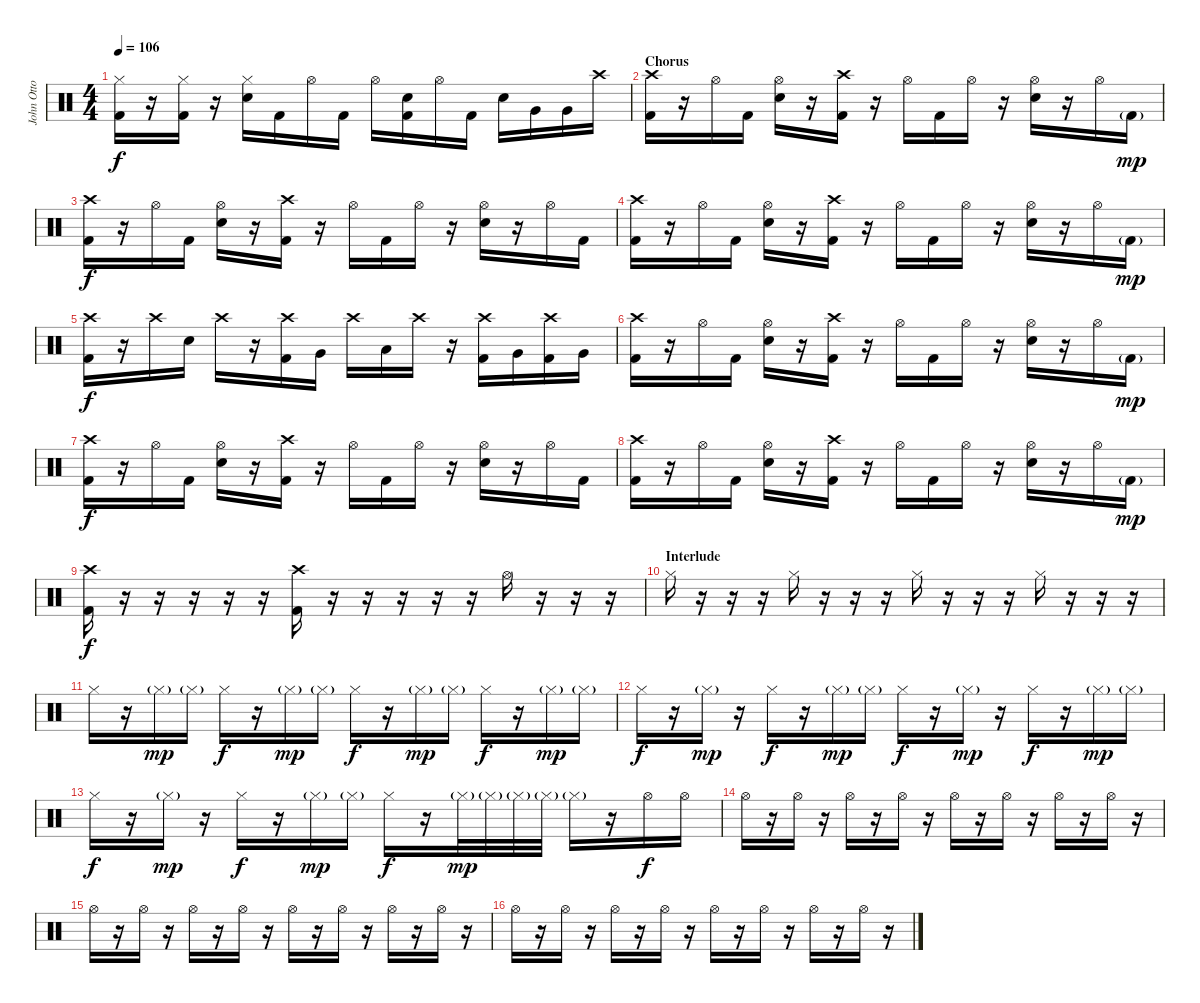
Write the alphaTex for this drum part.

\track ("John Otto" "John Otto") {instrument percussion}
\staff {score}
\articulation defaults
\ts (4 4)
\tempo 106
\clef neutral
\ks c
("Hi-Hat (closed)" "Kick (hit) 2").16{dy f} r.16 ("Hi-Hat (closed)" "Kick (hit) 2").16 r.16 ("Hi-Hat (closed)" "Snare (hit) 2").16 "Kick (hit) 2".16 "Hi-Hat (open)".16 "Kick (hit) 2".16 "Hi-Hat (open)".16 ("Snare (hit) 2" "Kick (hit) 2").16 "Hi-Hat (open)".16 "Kick (hit) 2".16 "Snare (hit) 2".16 "Very Low Tom (hit)".16 "Very Low Tom (hit)".16 "Crash high (hit)".16 |
\section ("" "Chorus")
("Crash high (hit)" "Kick (hit) 2").16 r.16 "Hi-Hat (open)".16 "Kick (hit) 2".16 ("Hi-Hat (open)" "Snare (hit) 2").16 r.16 ("Crash high (hit)" "Kick (hit) 2").16 r.16 "Hi-Hat (open)".16 "Kick (hit) 2".16 "Hi-Hat (open)".16 r.16 ("Hi-Hat (open)" "Snare (hit) 2").16 r.16 "Hi-Hat (open)".16 "Kick (hit) 2"{g}.16{dy mp} |
("Crash high (hit)" "Kick (hit) 2").16{dy f} r.16 "Hi-Hat (open)".16 "Kick (hit) 2".16 ("Hi-Hat (open)" "Snare (hit) 2").16 r.16 ("Crash high (hit)" "Kick (hit) 2").16 r.16 "Hi-Hat (open)".16 "Kick (hit) 2".16 "Hi-Hat (open)".16 r.16 ("Hi-Hat (open)" "Snare (hit) 2").16 r.16 "Hi-Hat (open)".16 "Kick (hit) 2".16 |
("Crash high (hit)" "Kick (hit) 2").16 r.16 "Hi-Hat (open)".16 "Kick (hit) 2".16 ("Hi-Hat (open)" "Snare (hit) 2").16 r.16 ("Crash high (hit)" "Kick (hit) 2").16 r.16 "Hi-Hat (open)".16 "Kick (hit) 2".16 "Hi-Hat (open)".16 r.16 ("Hi-Hat (open)" "Snare (hit) 2").16 r.16 "Hi-Hat (open)".16 "Kick (hit) 2"{g}.16{dy mp} |
("Crash high (hit)" "Kick (hit) 2").16{dy f} r.16 "Crash high (hit)".16 "Snare (hit) 2".16 "Crash high (hit)".16 r.16 ("Crash high (hit)" "Kick (hit) 2").16 "Very Low Tom (hit)".16 "Crash high (hit)".16 "Low Tom (hit)".16 "Crash high (hit)".16 r.16 ("Crash high (hit)" "Kick (hit) 2").16 "Very Low Tom (hit)".16 ("Crash high (hit)" "Kick (hit) 2").16 "Very Low Tom (hit)".16 |
("Crash high (hit)" "Kick (hit) 2").16 r.16 "Hi-Hat (open)".16 "Kick (hit) 2".16 ("Hi-Hat (open)" "Snare (hit) 2").16 r.16 ("Crash high (hit)" "Kick (hit) 2").16 r.16 "Hi-Hat (open)".16 "Kick (hit) 2".16 "Hi-Hat (open)".16 r.16 ("Hi-Hat (open)" "Snare (hit) 2").16 r.16 "Hi-Hat (open)".16 "Kick (hit) 2"{g}.16{dy mp} |
("Crash high (hit)" "Kick (hit) 2").16{dy f} r.16 "Hi-Hat (open)".16 "Kick (hit) 2".16 ("Hi-Hat (open)" "Snare (hit) 2").16 r.16 ("Crash high (hit)" "Kick (hit) 2").16 r.16 "Hi-Hat (open)".16 "Kick (hit) 2".16 "Hi-Hat (open)".16 r.16 ("Hi-Hat (open)" "Snare (hit) 2").16 r.16 "Hi-Hat (open)".16 "Kick (hit) 2".16 |
("Crash high (hit)" "Kick (hit) 2").16 r.16 "Hi-Hat (open)".16 "Kick (hit) 2".16 ("Hi-Hat (open)" "Snare (hit) 2").16 r.16 ("Crash high (hit)" "Kick (hit) 2").16 r.16 "Hi-Hat (open)".16 "Kick (hit) 2".16 "Hi-Hat (open)".16 r.16 ("Hi-Hat (open)" "Snare (hit) 2").16 r.16 "Hi-Hat (open)".16 "Kick (hit) 2"{g}.16{dy mp} |
("Crash high (hit)" "Kick (hit) 2").16{dy f} r.16 r.16 r.16 r.16 r.16 ("Crash high (hit)" "Kick (hit) 2").16 r.16 r.16 r.16 r.16 r.16 "Hi-Hat (open)".16 r.16 r.16 r.16 |
\section ("" "Interlude")
"Hi-Hat (closed)".16 r.16 r.16 r.16 "Hi-Hat (closed)".16 r.16 r.16 r.16 "Hi-Hat (closed)".16 r.16 r.16 r.16 "Hi-Hat (closed)".16 r.16 r.16 r.16 |
"Hi-Hat (closed)".16 r.16 "Hi-Hat (closed)"{g}.16{dy mp} "Hi-Hat (closed)"{g}.16 "Hi-Hat (closed)".16{dy f} r.16 "Hi-Hat (closed)"{g}.16{dy mp} "Hi-Hat (closed)"{g}.16 "Hi-Hat (closed)".16{dy f} r.16 "Hi-Hat (closed)"{g}.16{dy mp} "Hi-Hat (closed)"{g}.16 "Hi-Hat (closed)".16{dy f} r.16 "Hi-Hat (closed)"{g}.16{dy mp} "Hi-Hat (closed)"{g}.16 |
"Hi-Hat (closed)".16{dy f} r.16 "Hi-Hat (closed)"{g}.16{dy mp} r.16 "Hi-Hat (closed)".16{dy f} r.16 "Hi-Hat (closed)"{g}.16{dy mp} "Hi-Hat (closed)"{g}.16 "Hi-Hat (closed)".16{dy f} r.16 "Hi-Hat (closed)"{g}.16{dy mp} r.16 "Hi-Hat (closed)".16{dy f} r.16 "Hi-Hat (closed)"{g}.16{dy mp} "Hi-Hat (closed)"{g}.16 |
"Hi-Hat (closed)".16{dy f} r.16 "Hi-Hat (closed)"{g}.16{dy mp} r.16 "Hi-Hat (closed)".16{dy f} r.16 "Hi-Hat (closed)"{g}.16{dy mp} "Hi-Hat (closed)"{g}.16 "Hi-Hat (closed)".16{dy f} r.16 "Hi-Hat (closed)"{g}.32{dy mp} "Hi-Hat (closed)"{g}.32 "Hi-Hat (closed)"{g}.32 "Hi-Hat (closed)"{g}.32 "Hi-Hat (closed)"{g}.16 r.16 "Hi-Hat (open)".16{dy f} "Hi-Hat (open)".16 |
"Hi-Hat (open)".16 r.16 "Hi-Hat (open)".16 r.16 "Hi-Hat (open)".16 r.16 "Hi-Hat (open)".16 r.16 "Hi-Hat (open)".16 r.16 "Hi-Hat (open)".16 r.16 "Hi-Hat (open)".16 r.16 "Hi-Hat (open)".16 r.16 |
"Hi-Hat (open)".16 r.16 "Hi-Hat (open)".16 r.16 "Hi-Hat (open)".16 r.16 "Hi-Hat (open)".16 r.16 "Hi-Hat (open)".16 r.16 "Hi-Hat (open)".16 r.16 "Hi-Hat (open)".16 r.16 "Hi-Hat (open)".16 r.16 |
"Hi-Hat (open)".16 r.16 "Hi-Hat (open)".16 r.16 "Hi-Hat (open)".16 r.16 "Hi-Hat (open)".16 r.16 "Hi-Hat (open)".16 r.16 "Hi-Hat (open)".16 r.16 "Hi-Hat (open)".16 r.16 "Hi-Hat (open)".16 r.16
